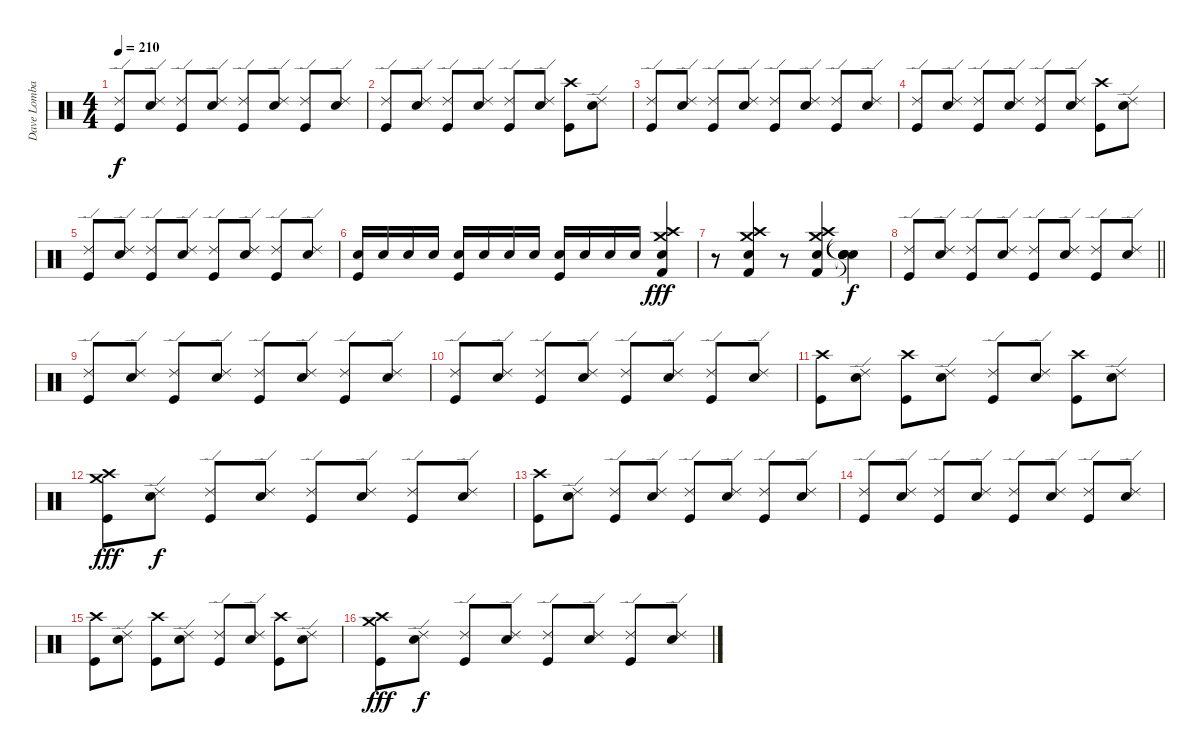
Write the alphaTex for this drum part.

\track ("Dave Lombardo:" "Dave Lomba") {instrument percussion}
\staff {score}
\articulation defaults
\ts (4 4)
\tempo 210
\clef neutral
\ks c
("Ride (edge) 2" "Kick (hit)").8{dy f} ("Ride (edge) 2" "Snare (hit) 2").8 ("Ride (edge) 2" "Kick (hit)").8 ("Ride (edge) 2" "Snare (hit) 2").8 ("Ride (edge) 2" "Kick (hit)").8 ("Ride (edge) 2" "Snare (hit) 2").8 ("Ride (edge) 2" "Kick (hit)").8 ("Ride (edge) 2" "Snare (hit) 2").8 |
("Ride (edge) 2" "Kick (hit)").8 ("Ride (edge) 2" "Snare (hit) 2").8 ("Ride (edge) 2" "Kick (hit)").8 ("Ride (edge) 2" "Snare (hit) 2").8 ("Ride (edge) 2" "Kick (hit)").8 ("Ride (edge) 2" "Snare (hit) 2").8 ("Crash high (hit)" "Kick (hit)").8 ("Ride (edge) 2" "Snare (hit) 2").8 |
("Ride (edge) 2" "Kick (hit)").8 ("Ride (edge) 2" "Snare (hit) 2").8 ("Ride (edge) 2" "Kick (hit)").8 ("Ride (edge) 2" "Snare (hit) 2").8 ("Ride (edge) 2" "Kick (hit)").8 ("Ride (edge) 2" "Snare (hit) 2").8 ("Ride (edge) 2" "Kick (hit)").8 ("Ride (edge) 2" "Snare (hit) 2").8 |
("Ride (edge) 2" "Kick (hit)").8 ("Ride (edge) 2" "Snare (hit) 2").8 ("Ride (edge) 2" "Kick (hit)").8 ("Ride (edge) 2" "Snare (hit) 2").8 ("Ride (edge) 2" "Kick (hit)").8 ("Ride (edge) 2" "Snare (hit) 2").8 ("Crash high (hit)" "Kick (hit)").8 ("Ride (edge) 2" "Snare (hit) 2").8 |
("Ride (edge) 2" "Kick (hit)").8 ("Ride (edge) 2" "Snare (hit) 2").8 ("Ride (edge) 2" "Kick (hit)").8 ("Ride (edge) 2" "Snare (hit) 2").8 ("Ride (edge) 2" "Kick (hit)").8 ("Ride (edge) 2" "Snare (hit) 2").8 ("Ride (edge) 2" "Kick (hit)").8 ("Ride (edge) 2" "Snare (hit) 2").8 |
("Snare (hit) 2" "Kick (hit)").16 "Snare (hit) 2".16 "Snare (hit) 2".16 "Snare (hit) 2".16 ("Snare (hit) 2" "Kick (hit)").16 "Snare (hit) 2".16 "Snare (hit) 2".16 "Snare (hit) 2".16 ("Snare (hit) 2" "Kick (hit)").16 "Snare (hit) 2".16 "Snare (hit) 2".16 "Snare (hit) 2".16 ("Crash high (hit)" "Crash medium (hit)" "Snare (hit) 2" "Kick (hit) 2").4{dy fff} |
r.8 ("Crash high (hit)" "Crash medium (hit)" "Snare (hit) 2" "Kick (hit) 2").4 r.8 ("Crash high (hit)" "Crash medium (hit)" "Snare (hit) 2" "Kick (hit) 2").4 ("Snare (hit)"{t} "Snare (hit)"{t} "Snare (hit)"{t} "Snare (hit)"{t}).4{dy f} |
\barLineRight lightlight
("Ride (edge) 2" "Kick (hit)").8 ("Ride (edge) 2" "Snare (hit) 2").8 ("Ride (edge) 2" "Kick (hit)").8 ("Ride (edge) 2" "Snare (hit) 2").8 ("Ride (edge) 2" "Kick (hit)").8 ("Ride (edge) 2" "Snare (hit) 2").8 ("Ride (edge) 2" "Kick (hit)").8 ("Ride (edge) 2" "Snare (hit) 2").8 |
\section ("" "")
("Ride (edge) 2" "Kick (hit)").8 ("Ride (edge) 2" "Snare (hit) 2").8 ("Ride (edge) 2" "Kick (hit)").8 ("Ride (edge) 2" "Snare (hit) 2").8 ("Ride (edge) 2" "Kick (hit)").8 ("Ride (edge) 2" "Snare (hit) 2").8 ("Ride (edge) 2" "Kick (hit)").8 ("Ride (edge) 2" "Snare (hit) 2").8 |
("Ride (edge) 2" "Kick (hit)").8 ("Ride (edge) 2" "Snare (hit) 2").8 ("Ride (edge) 2" "Kick (hit)").8 ("Ride (edge) 2" "Snare (hit) 2").8 ("Ride (edge) 2" "Kick (hit)").8 ("Ride (edge) 2" "Snare (hit) 2").8 ("Ride (edge) 2" "Kick (hit)").8 ("Ride (edge) 2" "Snare (hit) 2").8 |
("Crash high (hit)" "Kick (hit)").8 ("Ride (edge) 2" "Snare (hit) 2").8 ("Crash high (hit)" "Kick (hit)").8 ("Ride (edge) 2" "Snare (hit) 2").8 ("Ride (edge) 2" "Kick (hit)").8 ("Ride (edge) 2" "Snare (hit) 2").8 ("Crash high (hit)" "Kick (hit)").8 ("Ride (edge) 2" "Snare (hit) 2").8 |
("Crash medium (hit)" "Crash high (hit)" "Kick (hit)").8{dy fff} ("Ride (edge) 2" "Snare (hit) 2").8{dy f} ("Ride (edge) 2" "Kick (hit)").8 ("Ride (edge) 2" "Snare (hit) 2").8 ("Ride (edge) 2" "Kick (hit)").8 ("Ride (edge) 2" "Snare (hit) 2").8 ("Ride (edge) 2" "Kick (hit)").8 ("Ride (edge) 2" "Snare (hit) 2").8 |
("Crash high (hit)" "Kick (hit)").8 ("Ride (edge) 2" "Snare (hit) 2").8 ("Ride (edge) 2" "Kick (hit)").8 ("Ride (edge) 2" "Snare (hit) 2").8 ("Ride (edge) 2" "Kick (hit)").8 ("Ride (edge) 2" "Snare (hit) 2").8 ("Ride (edge) 2" "Kick (hit)").8 ("Ride (edge) 2" "Snare (hit) 2").8 |
("Ride (edge) 2" "Kick (hit)").8 ("Ride (edge) 2" "Snare (hit) 2").8 ("Ride (edge) 2" "Kick (hit)").8 ("Ride (edge) 2" "Snare (hit) 2").8 ("Ride (edge) 2" "Kick (hit)").8 ("Ride (edge) 2" "Snare (hit) 2").8 ("Ride (edge) 2" "Kick (hit)").8 ("Ride (edge) 2" "Snare (hit) 2").8 |
("Crash high (hit)" "Kick (hit)").8 ("Ride (edge) 2" "Snare (hit) 2").8 ("Crash high (hit)" "Kick (hit)").8 ("Ride (edge) 2" "Snare (hit) 2").8 ("Ride (edge) 2" "Kick (hit)").8 ("Ride (edge) 2" "Snare (hit) 2").8 ("Crash high (hit)" "Kick (hit)").8 ("Ride (edge) 2" "Snare (hit) 2").8 |
("Crash medium (hit)" "Crash high (hit)" "Kick (hit)").8{dy fff} ("Ride (edge) 2" "Snare (hit) 2").8{dy f} ("Ride (edge) 2" "Kick (hit)").8 ("Ride (edge) 2" "Snare (hit) 2").8 ("Ride (edge) 2" "Kick (hit)").8 ("Ride (edge) 2" "Snare (hit) 2").8 ("Ride (edge) 2" "Kick (hit)").8 ("Ride (edge) 2" "Snare (hit) 2").8
